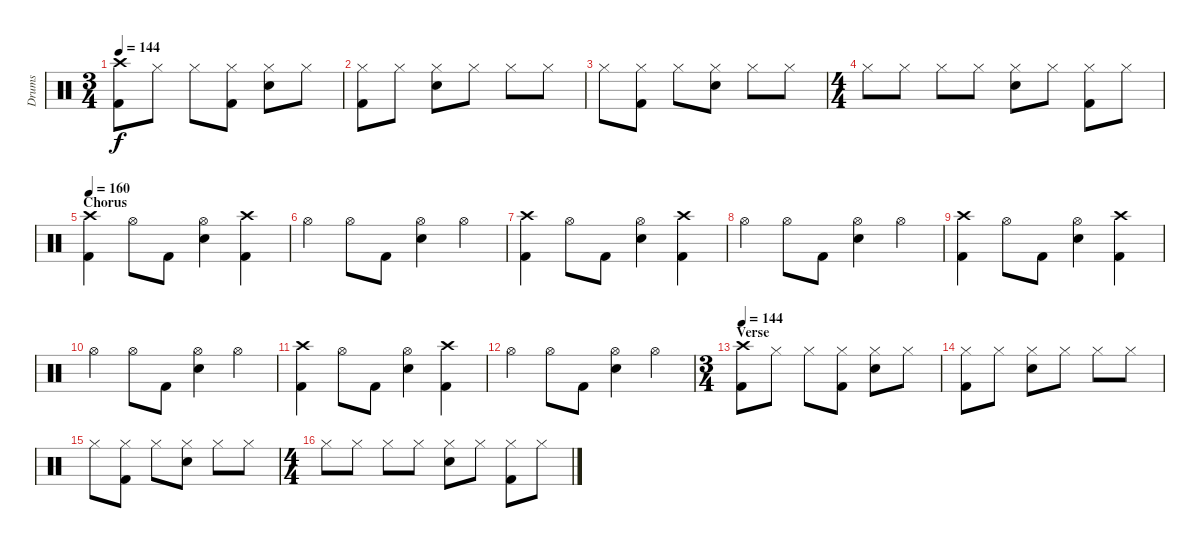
\track ("Drums" "Drums") {instrument percussion}
\staff {score}
\articulation defaults
\ts (3 4)
\tempo 144
\clef neutral
\ks c
("Crash high (hit)" "Kick (hit) 2").8{dy f} "Hi-Hat (closed)".8 "Hi-Hat (closed)".8 ("Hi-Hat (closed)" "Kick (hit) 2").8 ("Hi-Hat (closed)" "Electric Snare (hit)").8 "Hi-Hat (closed)".8 |
("Hi-Hat (closed)" "Kick (hit) 2").8 "Hi-Hat (closed)".8 ("Hi-Hat (closed)" "Electric Snare (hit)").8 "Hi-Hat (closed)".8 "Hi-Hat (closed)".8 "Hi-Hat (closed)".8 |
"Hi-Hat (closed)".8 ("Hi-Hat (closed)" "Kick (hit) 2").8 "Hi-Hat (closed)".8 ("Hi-Hat (closed)" "Electric Snare (hit)").8 "Hi-Hat (closed)".8 "Hi-Hat (closed)".8 |
\ts (4 4)
"Hi-Hat (closed)".8 "Hi-Hat (closed)".8 "Hi-Hat (closed)".8 "Hi-Hat (closed)".8 ("Hi-Hat (closed)" "Electric Snare (hit)").8 "Hi-Hat (closed)".8 ("Hi-Hat (closed)" "Kick (hit) 2").8 "Hi-Hat (closed)".8 |
\section ("" "Chorus")
\tempo 160
("Crash high (hit)" "Kick (hit) 2").4 "Hi-Hat (open)".8 "Kick (hit) 2".8 ("Hi-Hat (open)" "Electric Snare (hit)").4 ("Crash high (hit)" "Kick (hit) 2").4 |
"Hi-Hat (open)".4 "Hi-Hat (open)".8 "Kick (hit) 2".8 ("Hi-Hat (open)" "Electric Snare (hit)").4 "Hi-Hat (open)".4 |
("Crash high (hit)" "Kick (hit) 2").4 "Hi-Hat (open)".8 "Kick (hit) 2".8 ("Hi-Hat (open)" "Electric Snare (hit)").4 ("Crash high (hit)" "Kick (hit) 2").4 |
"Hi-Hat (open)".4 "Hi-Hat (open)".8 "Kick (hit) 2".8 ("Hi-Hat (open)" "Electric Snare (hit)").4 "Hi-Hat (open)".4 |
("Crash high (hit)" "Kick (hit) 2").4 "Hi-Hat (open)".8 "Kick (hit) 2".8 ("Hi-Hat (open)" "Electric Snare (hit)").4 ("Crash high (hit)" "Kick (hit) 2").4 |
"Hi-Hat (open)".4 "Hi-Hat (open)".8 "Kick (hit) 2".8 ("Hi-Hat (open)" "Electric Snare (hit)").4 "Hi-Hat (open)".4 |
("Crash high (hit)" "Kick (hit) 2").4 "Hi-Hat (open)".8 "Kick (hit) 2".8 ("Hi-Hat (open)" "Electric Snare (hit)").4 ("Crash high (hit)" "Kick (hit) 2").4 |
"Hi-Hat (open)".4 "Hi-Hat (open)".8 "Kick (hit) 2".8 ("Hi-Hat (open)" "Electric Snare (hit)").4 "Hi-Hat (open)".4 |
\ts (3 4)
\section ("" "Verse")
\tempo 144
("Crash high (hit)" "Kick (hit) 2").8 "Hi-Hat (closed)".8 "Hi-Hat (closed)".8 ("Hi-Hat (closed)" "Kick (hit) 2").8 ("Hi-Hat (closed)" "Electric Snare (hit)").8 "Hi-Hat (closed)".8 |
("Hi-Hat (closed)" "Kick (hit) 2").8 "Hi-Hat (closed)".8 ("Hi-Hat (closed)" "Electric Snare (hit)").8 "Hi-Hat (closed)".8 "Hi-Hat (closed)".8 "Hi-Hat (closed)".8 |
"Hi-Hat (closed)".8 ("Hi-Hat (closed)" "Kick (hit) 2").8 "Hi-Hat (closed)".8 ("Hi-Hat (closed)" "Electric Snare (hit)").8 "Hi-Hat (closed)".8 "Hi-Hat (closed)".8 |
\ts (4 4)
"Hi-Hat (closed)".8 "Hi-Hat (closed)".8 "Hi-Hat (closed)".8 "Hi-Hat (closed)".8 ("Hi-Hat (closed)" "Electric Snare (hit)").8 "Hi-Hat (closed)".8 ("Hi-Hat (closed)" "Kick (hit) 2").8 "Hi-Hat (closed)".8
